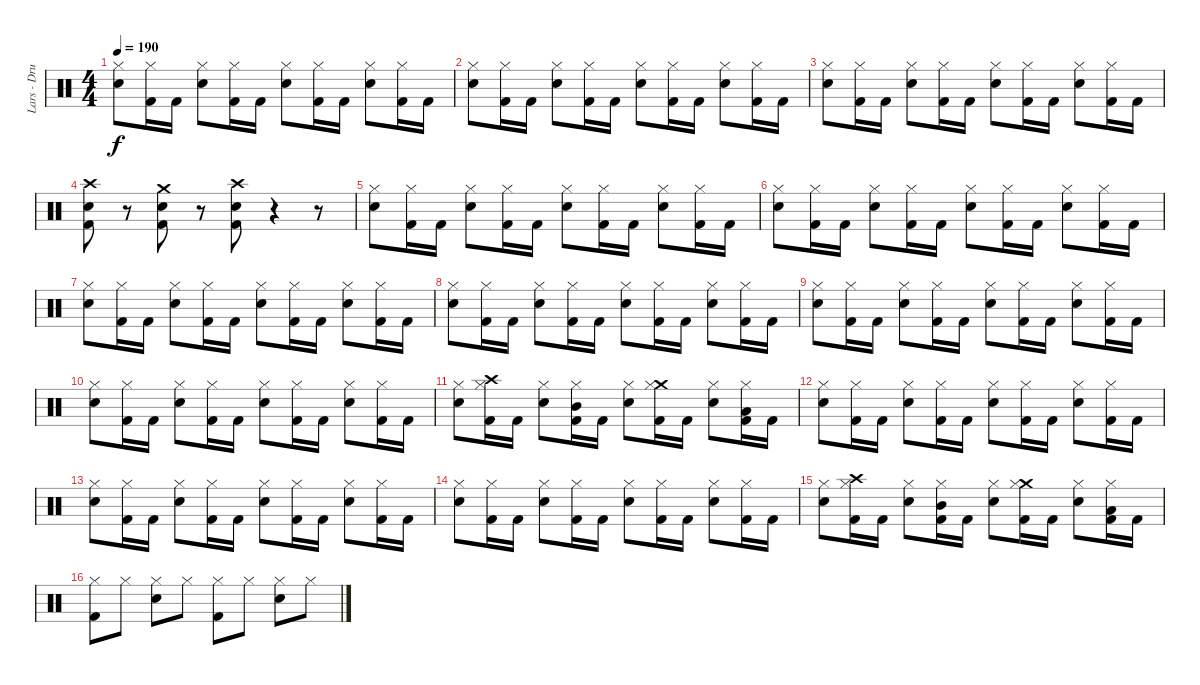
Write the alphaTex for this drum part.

\track ("Lars - Drums" "Lars - Dru") {instrument percussion}
\staff {score}
\articulation defaults
\ts (4 4)
\tempo 190
\clef neutral
\ks c
("Snare (hit) 2" "Hi-Hat (closed)").8{dy f} ("Kick (hit) 2" "Hi-Hat (closed)").16 "Kick (hit) 2".16 ("Snare (hit) 2" "Hi-Hat (closed)").8 ("Kick (hit) 2" "Hi-Hat (closed)").16 "Kick (hit) 2".16 ("Snare (hit) 2" "Hi-Hat (closed)").8 ("Kick (hit) 2" "Hi-Hat (closed)").16 "Kick (hit) 2".16 ("Snare (hit) 2" "Hi-Hat (closed)").8 ("Kick (hit) 2" "Hi-Hat (closed)").16 "Kick (hit) 2".16 |
("Snare (hit) 2" "Hi-Hat (closed)").8 ("Kick (hit) 2" "Hi-Hat (closed)").16 "Kick (hit) 2".16 ("Snare (hit) 2" "Hi-Hat (closed)").8 ("Kick (hit) 2" "Hi-Hat (closed)").16 "Kick (hit) 2".16 ("Snare (hit) 2" "Hi-Hat (closed)").8 ("Kick (hit) 2" "Hi-Hat (closed)").16 "Kick (hit) 2".16 ("Snare (hit) 2" "Hi-Hat (closed)").8 ("Kick (hit) 2" "Hi-Hat (closed)").16 "Kick (hit) 2".16 |
("Snare (hit) 2" "Hi-Hat (closed)").8 ("Kick (hit) 2" "Hi-Hat (closed)").16 "Kick (hit) 2".16 ("Snare (hit) 2" "Hi-Hat (closed)").8 ("Kick (hit) 2" "Hi-Hat (closed)").16 "Kick (hit) 2".16 ("Snare (hit) 2" "Hi-Hat (closed)").8 ("Kick (hit) 2" "Hi-Hat (closed)").16 "Kick (hit) 2".16 ("Snare (hit) 2" "Hi-Hat (closed)").8 ("Kick (hit) 2" "Hi-Hat (closed)").16 "Kick (hit) 2".16 |
("Crash high (hit)" "Kick (hit) 2" "Snare (hit) 2").8 r.8 ("Crash medium (hit)" "Kick (hit) 2" "Snare (hit) 2").8 r.8 ("Crash high (hit)" "Kick (hit) 2" "Snare (hit) 2").8 r.4 r.8 |
("Snare (hit) 2" "Hi-Hat (closed)").8 ("Kick (hit) 2" "Hi-Hat (closed)").16 "Kick (hit) 2".16 ("Snare (hit) 2" "Hi-Hat (closed)").8 ("Kick (hit) 2" "Hi-Hat (closed)").16 "Kick (hit) 2".16 ("Snare (hit) 2" "Hi-Hat (closed)").8 ("Kick (hit) 2" "Hi-Hat (closed)").16 "Kick (hit) 2".16 ("Snare (hit) 2" "Hi-Hat (closed)").8 ("Kick (hit) 2" "Hi-Hat (closed)").16 "Kick (hit) 2".16 |
("Snare (hit) 2" "Hi-Hat (closed)").8 ("Kick (hit) 2" "Hi-Hat (closed)").16 "Kick (hit) 2".16 ("Snare (hit) 2" "Hi-Hat (closed)").8 ("Kick (hit) 2" "Hi-Hat (closed)").16 "Kick (hit) 2".16 ("Snare (hit) 2" "Hi-Hat (closed)").8 ("Kick (hit) 2" "Hi-Hat (closed)").16 "Kick (hit) 2".16 ("Snare (hit) 2" "Hi-Hat (closed)").8 ("Kick (hit) 2" "Hi-Hat (closed)").16 "Kick (hit) 2".16 |
("Snare (hit) 2" "Hi-Hat (closed)").8 ("Kick (hit) 2" "Hi-Hat (closed)").16 "Kick (hit) 2".16 ("Snare (hit) 2" "Hi-Hat (closed)").8 ("Kick (hit) 2" "Hi-Hat (closed)").16 "Kick (hit) 2".16 ("Snare (hit) 2" "Hi-Hat (closed)").8 ("Kick (hit) 2" "Hi-Hat (closed)").16 "Kick (hit) 2".16 ("Snare (hit) 2" "Hi-Hat (closed)").8 ("Kick (hit) 2" "Hi-Hat (closed)").16 "Kick (hit) 2".16 |
("Snare (hit) 2" "Hi-Hat (closed)").8 ("Kick (hit) 2" "Hi-Hat (closed)").16 "Kick (hit) 2".16 ("Snare (hit) 2" "Hi-Hat (closed)").8 ("Kick (hit) 2" "Hi-Hat (closed)").16 "Kick (hit) 2".16 ("Snare (hit) 2" "Hi-Hat (closed)").8 ("Kick (hit) 2" "Hi-Hat (closed)").16 "Kick (hit) 2".16 ("Snare (hit) 2" "Hi-Hat (closed)").8 ("Kick (hit) 2" "Hi-Hat (closed)").16 "Kick (hit) 2".16 |
("Snare (hit) 2" "Hi-Hat (closed)").8 ("Kick (hit) 2" "Hi-Hat (closed)").16 "Kick (hit) 2".16 ("Snare (hit) 2" "Hi-Hat (closed)").8 ("Kick (hit) 2" "Hi-Hat (closed)").16 "Kick (hit) 2".16 ("Snare (hit) 2" "Hi-Hat (closed)").8 ("Kick (hit) 2" "Hi-Hat (closed)").16 "Kick (hit) 2".16 ("Snare (hit) 2" "Hi-Hat (closed)").8 ("Kick (hit) 2" "Hi-Hat (closed)").16 "Kick (hit) 2".16 |
("Snare (hit) 2" "Hi-Hat (closed)").8 ("Kick (hit) 2" "Hi-Hat (closed)").16 "Kick (hit) 2".16 ("Snare (hit) 2" "Hi-Hat (closed)").8 ("Kick (hit) 2" "Hi-Hat (closed)").16 "Kick (hit) 2".16 ("Snare (hit) 2" "Hi-Hat (closed)").8 ("Kick (hit) 2" "Hi-Hat (closed)").16 "Kick (hit) 2".16 ("Snare (hit) 2" "Hi-Hat (closed)").8 ("Kick (hit) 2" "Hi-Hat (closed)").16 "Kick (hit) 2".16 |
("Snare (hit) 2" "Hi-Hat (closed)").8 ("Kick (hit) 2" "Crash high (hit)" "Hi-Hat (closed)").16 "Kick (hit) 2".16 ("Snare (hit) 2" "Hi-Hat (closed)").8 ("Kick (hit) 2" "Mid Tom (hit)" "Hi-Hat (closed)").16 "Kick (hit) 2".16 ("Snare (hit) 2" "Hi-Hat (closed)").8 ("Kick (hit) 2" "Crash medium (hit)" "Hi-Hat (closed)").16 "Kick (hit) 2".16 ("Snare (hit) 2" "Hi-Hat (closed)").8 ("Kick (hit) 2" "Low Tom (hit)" "Hi-Hat (closed)").16 "Kick (hit) 2".16 |
("Snare (hit) 2" "Hi-Hat (closed)").8 ("Kick (hit) 2" "Hi-Hat (closed)").16 "Kick (hit) 2".16 ("Snare (hit) 2" "Hi-Hat (closed)").8 ("Kick (hit) 2" "Hi-Hat (closed)").16 "Kick (hit) 2".16 ("Snare (hit) 2" "Hi-Hat (closed)").8 ("Kick (hit) 2" "Hi-Hat (closed)").16 "Kick (hit) 2".16 ("Snare (hit) 2" "Hi-Hat (closed)").8 ("Kick (hit) 2" "Hi-Hat (closed)").16 "Kick (hit) 2".16 |
("Snare (hit) 2" "Hi-Hat (closed)").8 ("Kick (hit) 2" "Hi-Hat (closed)").16 "Kick (hit) 2".16 ("Snare (hit) 2" "Hi-Hat (closed)").8 ("Kick (hit) 2" "Hi-Hat (closed)").16 "Kick (hit) 2".16 ("Snare (hit) 2" "Hi-Hat (closed)").8 ("Kick (hit) 2" "Hi-Hat (closed)").16 "Kick (hit) 2".16 ("Snare (hit) 2" "Hi-Hat (closed)").8 ("Kick (hit) 2" "Hi-Hat (closed)").16 "Kick (hit) 2".16 |
("Snare (hit) 2" "Hi-Hat (closed)").8 ("Kick (hit) 2" "Hi-Hat (closed)").16 "Kick (hit) 2".16 ("Snare (hit) 2" "Hi-Hat (closed)").8 ("Kick (hit) 2" "Hi-Hat (closed)").16 "Kick (hit) 2".16 ("Snare (hit) 2" "Hi-Hat (closed)").8 ("Kick (hit) 2" "Hi-Hat (closed)").16 "Kick (hit) 2".16 ("Snare (hit) 2" "Hi-Hat (closed)").8 ("Kick (hit) 2" "Hi-Hat (closed)").16 "Kick (hit) 2".16 |
("Snare (hit) 2" "Hi-Hat (closed)").8 ("Kick (hit) 2" "Crash high (hit)" "Hi-Hat (closed)").16 "Kick (hit) 2".16 ("Snare (hit) 2" "Hi-Hat (closed)").8 ("Kick (hit) 2" "Mid Tom (hit)" "Hi-Hat (closed)").16 "Kick (hit) 2".16 ("Snare (hit) 2" "Hi-Hat (closed)").8 ("Kick (hit) 2" "Crash medium (hit)" "Hi-Hat (closed)").16 "Kick (hit) 2".16 ("Snare (hit) 2" "Hi-Hat (closed)").8 ("Kick (hit) 2" "Low Tom (hit)" "Hi-Hat (closed)").16 "Kick (hit) 2".16 |
("Kick (hit) 2" "Hi-Hat (closed)").8 "Hi-Hat (closed)".8 ("Snare (hit) 2" "Hi-Hat (closed)").8 "Hi-Hat (closed)".8 ("Kick (hit) 2" "Hi-Hat (closed)").8 "Hi-Hat (closed)".8 ("Snare (hit) 2" "Hi-Hat (closed)").8 "Hi-Hat (closed)".8
